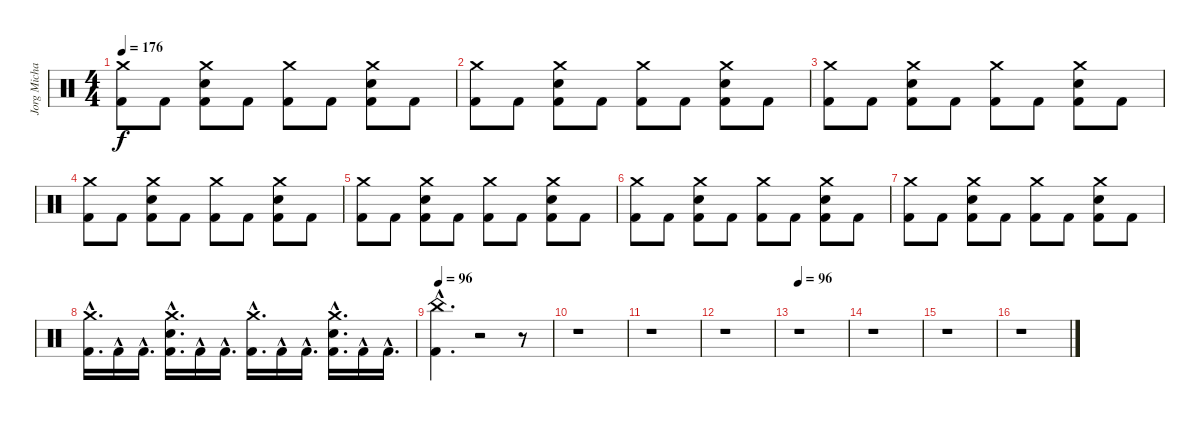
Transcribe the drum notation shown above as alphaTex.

\track ("Jorg Michael" "Jorg Micha") {instrument percussion}
\staff {score}
\articulation defaults
\ts (4 4)
\tempo 176
\clef neutral
\ks c
("Crash medium (hit)" "Kick (hit) 2").8{dy f} "Kick (hit) 2".8 ("Kick (hit) 2" "Crash medium (hit)" "Snare (hit) 2").8 "Kick (hit) 2".8 ("Crash medium (hit)" "Kick (hit) 2").8 "Kick (hit) 2".8 ("Kick (hit) 2" "Crash medium (hit)" "Snare (hit) 2").8 "Kick (hit) 2".8 |
("Crash medium (hit)" "Kick (hit) 2").8 "Kick (hit) 2".8 ("Kick (hit) 2" "Crash medium (hit)" "Snare (hit) 2").8 "Kick (hit) 2".8 ("Crash medium (hit)" "Kick (hit) 2").8 "Kick (hit) 2".8 ("Kick (hit) 2" "Crash medium (hit)" "Snare (hit) 2").8 "Kick (hit) 2".8 |
("Crash medium (hit)" "Kick (hit) 2").8 "Kick (hit) 2".8 ("Kick (hit) 2" "Crash medium (hit)" "Snare (hit) 2").8 "Kick (hit) 2".8 ("Crash medium (hit)" "Kick (hit) 2").8 "Kick (hit) 2".8 ("Kick (hit) 2" "Crash medium (hit)" "Snare (hit) 2").8 "Kick (hit) 2".8 |
("Crash medium (hit)" "Kick (hit) 2").8 "Kick (hit) 2".8 ("Kick (hit) 2" "Crash medium (hit)" "Snare (hit) 2").8 "Kick (hit) 2".8 ("Crash medium (hit)" "Kick (hit) 2").8 "Kick (hit) 2".8 ("Kick (hit) 2" "Crash medium (hit)" "Snare (hit) 2").8 "Kick (hit) 2".8 |
("Crash medium (hit)" "Kick (hit) 2").8 "Kick (hit) 2".8 ("Kick (hit) 2" "Crash medium (hit)" "Snare (hit) 2").8 "Kick (hit) 2".8 ("Crash medium (hit)" "Kick (hit) 2").8 "Kick (hit) 2".8 ("Kick (hit) 2" "Crash medium (hit)" "Snare (hit) 2").8 "Kick (hit) 2".8 |
("Crash medium (hit)" "Kick (hit) 2").8 "Kick (hit) 2".8 ("Kick (hit) 2" "Crash medium (hit)" "Snare (hit) 2").8 "Kick (hit) 2".8 ("Crash medium (hit)" "Kick (hit) 2").8 "Kick (hit) 2".8 ("Kick (hit) 2" "Crash medium (hit)" "Snare (hit) 2").8 "Kick (hit) 2".8 |
("Crash medium (hit)" "Kick (hit) 2").8 "Kick (hit) 2".8 ("Kick (hit) 2" "Crash medium (hit)" "Snare (hit) 2").8 "Kick (hit) 2".8 ("Crash medium (hit)" "Kick (hit) 2").8 "Kick (hit) 2".8 ("Kick (hit) 2" "Crash medium (hit)" "Snare (hit) 2").8 "Kick (hit) 2".8 |
("Crash medium (hit)" "Kick (hit) 2"{hac}).16{d} "Kick (hit) 2"{hac}.16 "Kick (hit) 2"{hac}.16{d} ("Snare (hit) 2" "Crash medium (hit)" "Kick (hit) 2"{hac}).16{d} "Kick (hit) 2"{hac}.16 "Kick (hit) 2"{hac}.16{d} ("Crash medium (hit)" "Kick (hit) 2"{hac}).16{d} "Kick (hit) 2"{hac}.16 "Kick (hit) 2"{hac}.16{d} ("Snare (hit) 2" "Crash medium (hit)" "Kick (hit) 2"{hac}).16{d} "Kick (hit) 2"{hac}.16 "Kick (hit) 2"{hac}.16{d} |
\tempo 96
("Kick (hit) 2" "China (hit)"{hac}).4{d} r.2 r.8 |
r.1 |
r.1 |
r.1 |
\tempo 96
r.1 |
r.1 |
r.1 |
r.1
